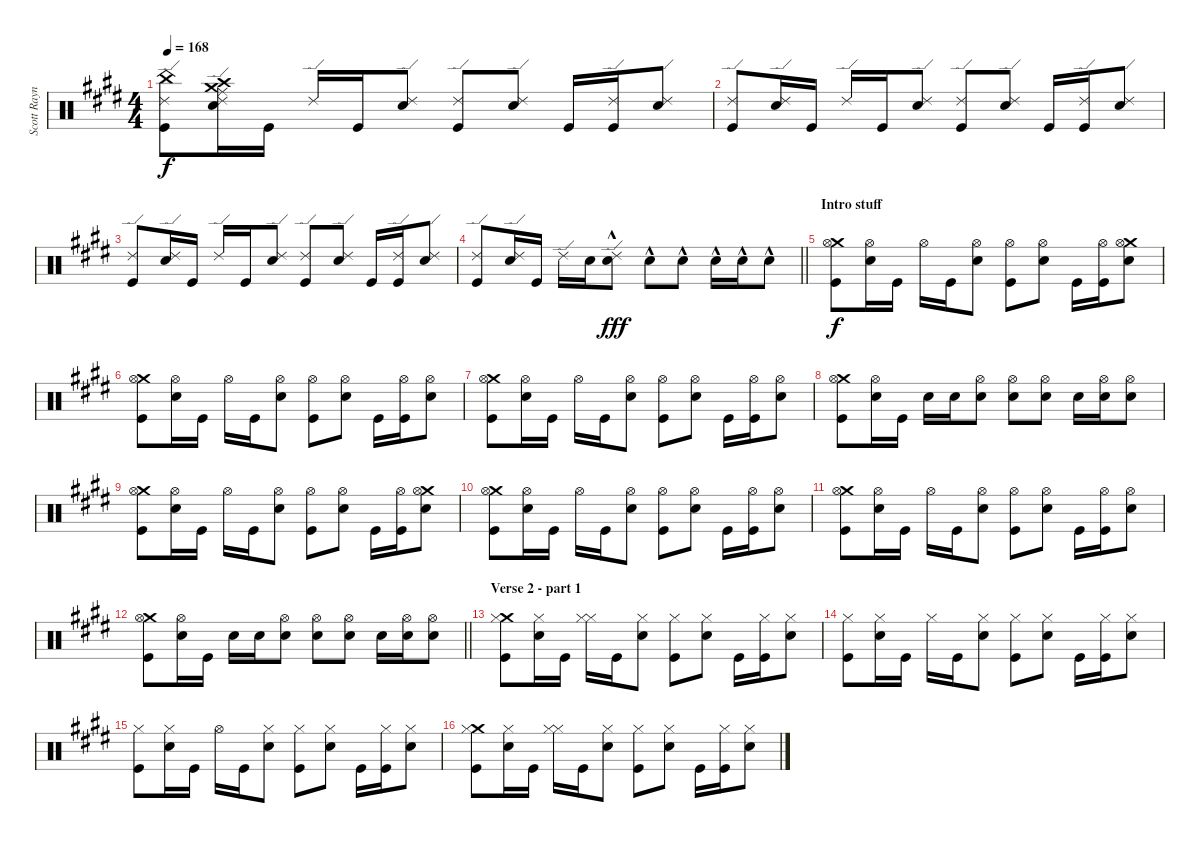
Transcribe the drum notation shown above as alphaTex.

\track ("Scott Raynor" "Scott Rayn") {instrument percussion}
\staff {score}
\articulation defaults
\ts (4 4)
\tempo 168
\clef neutral
\ks e
("China (hit)"{t} "Ride (edge) 2" "Kick (hit)").8{dy f} ("Ride (middle)" "Crash high (hit)" "Crash medium (hit)" "Ride (edge) 2" "Electric Snare (hit)").16 "Kick (hit)".16 "Ride (edge) 2".16 "Kick (hit)".16 ("Ride (edge) 2" "Electric Snare (hit)").8 ("Ride (edge) 2" "Kick (hit)").8 ("Ride (edge) 2" "Electric Snare (hit)").8 "Kick (hit)".16 ("Ride (edge) 2" "Kick (hit)").16 ("Ride (edge) 2" "Electric Snare (hit)").8 |
("Ride (edge) 2" "Kick (hit)").8 ("Ride (edge) 2" "Electric Snare (hit)").16 "Kick (hit)".16 "Ride (edge) 2".16 "Kick (hit)".16 ("Ride (edge) 2" "Electric Snare (hit)").8 ("Ride (edge) 2" "Kick (hit)").8 ("Ride (edge) 2" "Electric Snare (hit)").8 "Kick (hit)".16 ("Ride (edge) 2" "Kick (hit)").16 ("Ride (edge) 2" "Electric Snare (hit)").8 |
("Ride (edge) 2" "Kick (hit)").8 ("Ride (edge) 2" "Electric Snare (hit)").16 "Kick (hit)".16 "Ride (edge) 2".16 "Kick (hit)".16 ("Ride (edge) 2" "Electric Snare (hit)").8 ("Ride (edge) 2" "Kick (hit)").8 ("Ride (edge) 2" "Electric Snare (hit)").8 "Kick (hit)".16 ("Ride (edge) 2" "Kick (hit)").16 ("Ride (edge) 2" "Electric Snare (hit)").8 |
\barLineRight lightlight
("Ride (edge) 2" "Kick (hit)").8 ("Ride (edge) 2" "Electric Snare (hit)").16 "Kick (hit)".16 "Ride (edge) 2".16 "Electric Snare (hit)".16 ("Ride (edge) 2" "Electric Snare (hit)"{hac}).8{dy fff} "Electric Snare (hit)"{hac}.8 "Electric Snare (hit)"{hac}.8 "Electric Snare (hit)"{hac}.16 "Electric Snare (hit)"{hac}.16 "Electric Snare (hit)"{hac}.8 |
\section ("" "Intro stuff")
("Crash medium (hit)" "Hi-Hat (open)" "Kick (hit)").8{dy f} ("Hi-Hat (open)" "Electric Snare (hit)").16 "Kick (hit)".16 "Hi-Hat (open)".16 "Kick (hit)".16 ("Hi-Hat (open)" "Electric Snare (hit)").8 ("Hi-Hat (open)" "Kick (hit)").8 ("Hi-Hat (open)" "Electric Snare (hit)").8 "Kick (hit)".16 ("Hi-Hat (open)" "Kick (hit)").16 ("Crash medium (hit)" "Hi-Hat (open)" "Electric Snare (hit)").8 |
("Crash medium (hit)" "Hi-Hat (open)" "Kick (hit)").8 ("Hi-Hat (open)" "Electric Snare (hit)").16 "Kick (hit)".16 "Hi-Hat (open)".16 "Kick (hit)".16 ("Hi-Hat (open)" "Electric Snare (hit)").8 ("Hi-Hat (open)" "Kick (hit)").8 ("Hi-Hat (open)" "Electric Snare (hit)").8 "Kick (hit)".16 ("Hi-Hat (open)" "Kick (hit)").16 ("Hi-Hat (open)" "Electric Snare (hit)").8 |
("Crash medium (hit)" "Hi-Hat (open)" "Kick (hit)").8 ("Hi-Hat (open)" "Electric Snare (hit)").16 "Kick (hit)".16 "Hi-Hat (open)".16 "Kick (hit)".16 ("Hi-Hat (open)" "Electric Snare (hit)").8 ("Hi-Hat (open)" "Kick (hit)").8 ("Hi-Hat (open)" "Electric Snare (hit)").8 "Kick (hit)".16 ("Hi-Hat (open)" "Kick (hit)").16 ("Hi-Hat (open)" "Electric Snare (hit)").8 |
("Crash medium (hit)" "Hi-Hat (open)" "Kick (hit)").8 ("Hi-Hat (open)" "Electric Snare (hit)").16 "Kick (hit)".16 "Electric Snare (hit)".16 "Electric Snare (hit)".16 ("Hi-Hat (open)" "Electric Snare (hit)").8 ("Hi-Hat (open)" "Electric Snare (hit)").8 ("Hi-Hat (open)" "Electric Snare (hit)").8 "Electric Snare (hit)".16 ("Hi-Hat (open)" "Electric Snare (hit)").16 ("Hi-Hat (open)" "Electric Snare (hit)").8 |
("Crash medium (hit)" "Hi-Hat (open)" "Kick (hit)").8 ("Hi-Hat (open)" "Electric Snare (hit)").16 "Kick (hit)".16 "Hi-Hat (open)".16 "Kick (hit)".16 ("Hi-Hat (open)" "Electric Snare (hit)").8 ("Hi-Hat (open)" "Kick (hit)").8 ("Hi-Hat (open)" "Electric Snare (hit)").8 "Kick (hit)".16 ("Hi-Hat (open)" "Kick (hit)").16 ("Crash medium (hit)" "Hi-Hat (open)" "Electric Snare (hit)").8 |
("Crash medium (hit)" "Hi-Hat (open)" "Kick (hit)").8 ("Hi-Hat (open)" "Electric Snare (hit)").16 "Kick (hit)".16 "Hi-Hat (open)".16 "Kick (hit)".16 ("Hi-Hat (open)" "Electric Snare (hit)").8 ("Hi-Hat (open)" "Kick (hit)").8 ("Hi-Hat (open)" "Electric Snare (hit)").8 "Kick (hit)".16 ("Hi-Hat (open)" "Kick (hit)").16 ("Hi-Hat (open)" "Electric Snare (hit)").8 |
("Crash medium (hit)" "Hi-Hat (open)" "Kick (hit)").8 ("Hi-Hat (open)" "Electric Snare (hit)").16 "Kick (hit)".16 "Hi-Hat (open)".16 "Kick (hit)".16 ("Hi-Hat (open)" "Electric Snare (hit)").8 ("Hi-Hat (open)" "Kick (hit)").8 ("Hi-Hat (open)" "Electric Snare (hit)").8 "Kick (hit)".16 ("Hi-Hat (open)" "Kick (hit)").16 ("Hi-Hat (open)" "Electric Snare (hit)").8 |
\barLineRight lightlight
("Crash medium (hit)" "Hi-Hat (open)" "Kick (hit)").8 ("Hi-Hat (open)" "Electric Snare (hit)").16 "Kick (hit)".16 "Electric Snare (hit)".16 "Electric Snare (hit)".16 ("Hi-Hat (open)" "Electric Snare (hit)").8 ("Hi-Hat (open)" "Electric Snare (hit)").8 ("Hi-Hat (open)" "Electric Snare (hit)").8 "Electric Snare (hit)".16 ("Hi-Hat (open)" "Electric Snare (hit)").16 ("Hi-Hat (open)" "Electric Snare (hit)").8 |
\section ("" "Verse 2 - part 1")
("Crash medium (hit)" "Hi-Hat (closed)" "Kick (hit)").8 ("Hi-Hat (closed)" "Electric Snare (hit)").16 "Kick (hit)".16 ("Hi-Hat (closed)" "Hi-Hat (closed)").16 "Kick (hit)".16 ("Hi-Hat (closed)" "Electric Snare (hit)").8 ("Hi-Hat (closed)" "Kick (hit)").8 ("Hi-Hat (closed)" "Electric Snare (hit)").8 "Kick (hit)".16 ("Hi-Hat (closed)" "Kick (hit)").16 ("Hi-Hat (closed)" "Electric Snare (hit)").8 |
("Hi-Hat (closed)" "Kick (hit)").8 ("Hi-Hat (closed)" "Electric Snare (hit)").16 "Kick (hit)".16 "Hi-Hat (closed)".16 "Kick (hit)".16 ("Hi-Hat (closed)" "Electric Snare (hit)").8 ("Hi-Hat (closed)" "Kick (hit)").8 ("Hi-Hat (closed)" "Electric Snare (hit)").8 "Kick (hit)".16 ("Hi-Hat (closed)" "Kick (hit)").16 ("Hi-Hat (closed)" "Electric Snare (hit)").8 |
("Hi-Hat (closed)" "Kick (hit)").8 ("Hi-Hat (closed)" "Electric Snare (hit)").16 "Kick (hit)".16 "Hi-Hat (open)".16 "Kick (hit)".16 ("Hi-Hat (closed)" "Electric Snare (hit)").8 ("Hi-Hat (closed)" "Kick (hit)").8 ("Hi-Hat (closed)" "Electric Snare (hit)").8 "Kick (hit)".16 ("Hi-Hat (closed)" "Kick (hit)").16 ("Hi-Hat (closed)" "Electric Snare (hit)").8 |
("Crash medium (hit)" "Hi-Hat (closed)" "Kick (hit)").8 ("Hi-Hat (closed)" "Electric Snare (hit)").16 "Kick (hit)".16 ("Hi-Hat (closed)" "Hi-Hat (closed)").16 "Kick (hit)".16 ("Hi-Hat (closed)" "Electric Snare (hit)").8 ("Hi-Hat (closed)" "Kick (hit)").8 ("Hi-Hat (closed)" "Electric Snare (hit)").8 "Kick (hit)".16 ("Hi-Hat (closed)" "Kick (hit)").16 ("Hi-Hat (closed)" "Electric Snare (hit)").8
